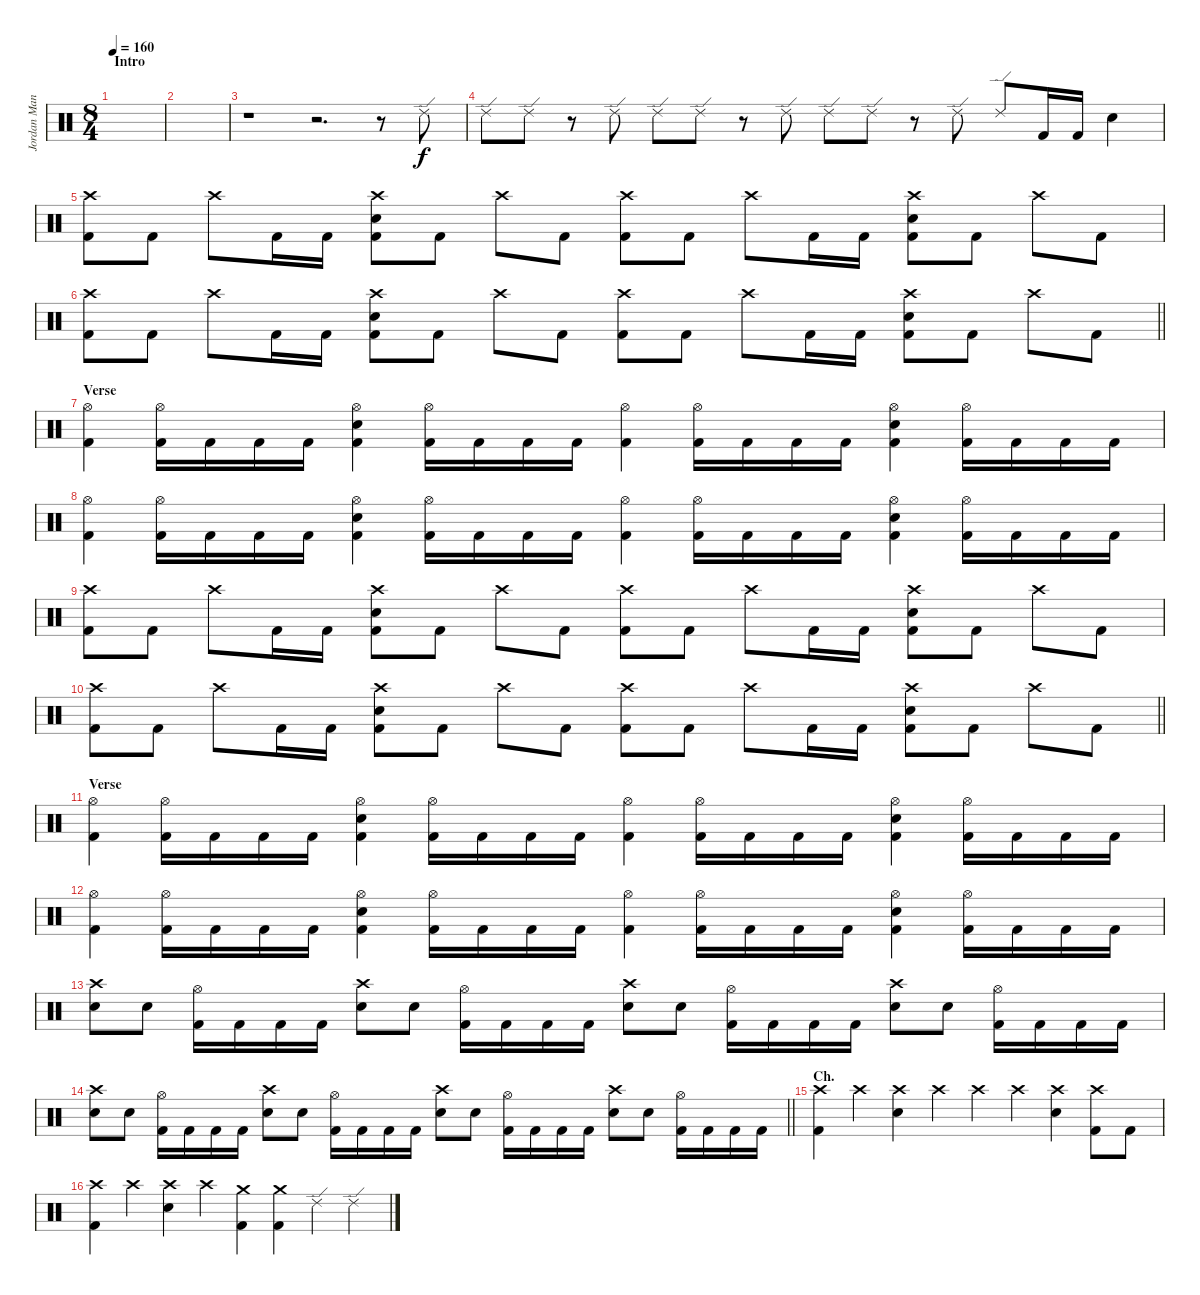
\track ("Jordan Mancino" "Jordan Man") {instrument percussion}
\staff {score}
\articulation defaults
\ts (8 4)
\section ("" "Intro")
\tempo 160
\clef neutral
\ks c
|
|
r.1 r.2{d} r.8 "Ride (edge) 2".8 |
"Ride (edge) 2".8 "Ride (edge) 2".8 r.8 "Ride (edge) 2".8 "Ride (edge) 2".8 "Ride (edge) 2".8 r.8 "Ride (edge) 2".8 "Ride (edge) 2".8 "Ride (edge) 2".8 r.8 "Ride (edge) 2".8 "Ride (edge) 2".8 "Kick (hit) 2".16 "Kick (hit) 2".16 "Electric Snare (hit)".4 |
("Crash high (hit)" "Kick (hit) 2").8 "Kick (hit) 2".8 "Crash high (hit)".8 "Kick (hit) 2".16 "Kick (hit) 2".16 ("Crash high (hit)" "Electric Snare (hit)" "Kick (hit) 2").8 "Kick (hit) 2".8 "Crash high (hit)".8 "Kick (hit) 2".8 ("Crash high (hit)" "Kick (hit) 2").8 "Kick (hit) 2".8 "Crash high (hit)".8 "Kick (hit) 2".16 "Kick (hit) 2".16 ("Crash high (hit)" "Electric Snare (hit)" "Kick (hit) 2").8 "Kick (hit) 2".8 "Crash high (hit)".8 "Kick (hit) 2".8 |
\barLineRight lightlight
("Crash high (hit)" "Kick (hit) 2").8 "Kick (hit) 2".8 "Crash high (hit)".8 "Kick (hit) 2".16 "Kick (hit) 2".16 ("Crash high (hit)" "Electric Snare (hit)" "Kick (hit) 2").8 "Kick (hit) 2".8 "Crash high (hit)".8 "Kick (hit) 2".8 ("Crash high (hit)" "Kick (hit) 2").8 "Kick (hit) 2".8 "Crash high (hit)".8 "Kick (hit) 2".16 "Kick (hit) 2".16 ("Crash high (hit)" "Electric Snare (hit)" "Kick (hit) 2").8 "Kick (hit) 2".8 "Crash high (hit)".8 "Kick (hit) 2".8 |
\section ("" "Verse")
("Hi-Hat (open)" "Kick (hit) 2").4 ("Hi-Hat (open)" "Kick (hit) 2").16 "Kick (hit) 2".16 "Kick (hit) 2".16 "Kick (hit) 2".16 ("Hi-Hat (open)" "Electric Snare (hit)" "Kick (hit) 2").4 ("Hi-Hat (open)" "Kick (hit) 2").16 "Kick (hit) 2".16 "Kick (hit) 2".16 "Kick (hit) 2".16 ("Hi-Hat (open)" "Kick (hit) 2").4 ("Hi-Hat (open)" "Kick (hit) 2").16 "Kick (hit) 2".16 "Kick (hit) 2".16 "Kick (hit) 2".16 ("Hi-Hat (open)" "Electric Snare (hit)" "Kick (hit) 2").4 ("Hi-Hat (open)" "Kick (hit) 2").16 "Kick (hit) 2".16 "Kick (hit) 2".16 "Kick (hit) 2".16 |
("Hi-Hat (open)" "Kick (hit) 2").4 ("Hi-Hat (open)" "Kick (hit) 2").16 "Kick (hit) 2".16 "Kick (hit) 2".16 "Kick (hit) 2".16 ("Hi-Hat (open)" "Electric Snare (hit)" "Kick (hit) 2").4 ("Hi-Hat (open)" "Kick (hit) 2").16 "Kick (hit) 2".16 "Kick (hit) 2".16 "Kick (hit) 2".16 ("Hi-Hat (open)" "Kick (hit) 2").4 ("Hi-Hat (open)" "Kick (hit) 2").16 "Kick (hit) 2".16 "Kick (hit) 2".16 "Kick (hit) 2".16 ("Hi-Hat (open)" "Electric Snare (hit)" "Kick (hit) 2").4 ("Hi-Hat (open)" "Kick (hit) 2").16 "Kick (hit) 2".16 "Kick (hit) 2".16 "Kick (hit) 2".16 |
("Crash high (hit)" "Kick (hit) 2").8 "Kick (hit) 2".8 "Crash high (hit)".8 "Kick (hit) 2".16 "Kick (hit) 2".16 ("Crash high (hit)" "Electric Snare (hit)" "Kick (hit) 2").8 "Kick (hit) 2".8 "Crash high (hit)".8 "Kick (hit) 2".8 ("Crash high (hit)" "Kick (hit) 2").8 "Kick (hit) 2".8 "Crash high (hit)".8 "Kick (hit) 2".16 "Kick (hit) 2".16 ("Crash high (hit)" "Electric Snare (hit)" "Kick (hit) 2").8 "Kick (hit) 2".8 "Crash high (hit)".8 "Kick (hit) 2".8 |
\barLineRight lightlight
("Crash high (hit)" "Kick (hit) 2").8 "Kick (hit) 2".8 "Crash high (hit)".8 "Kick (hit) 2".16 "Kick (hit) 2".16 ("Crash high (hit)" "Electric Snare (hit)" "Kick (hit) 2").8 "Kick (hit) 2".8 "Crash high (hit)".8 "Kick (hit) 2".8 ("Crash high (hit)" "Kick (hit) 2").8 "Kick (hit) 2".8 "Crash high (hit)".8 "Kick (hit) 2".16 "Kick (hit) 2".16 ("Crash high (hit)" "Electric Snare (hit)" "Kick (hit) 2").8 "Kick (hit) 2".8 "Crash high (hit)".8 "Kick (hit) 2".8 |
\section ("" "Verse")
("Hi-Hat (open)" "Kick (hit) 2").4 ("Hi-Hat (open)" "Kick (hit) 2").16 "Kick (hit) 2".16 "Kick (hit) 2".16 "Kick (hit) 2".16 ("Hi-Hat (open)" "Electric Snare (hit)" "Kick (hit) 2").4 ("Hi-Hat (open)" "Kick (hit) 2").16 "Kick (hit) 2".16 "Kick (hit) 2".16 "Kick (hit) 2".16 ("Hi-Hat (open)" "Kick (hit) 2").4 ("Hi-Hat (open)" "Kick (hit) 2").16 "Kick (hit) 2".16 "Kick (hit) 2".16 "Kick (hit) 2".16 ("Hi-Hat (open)" "Electric Snare (hit)" "Kick (hit) 2").4 ("Hi-Hat (open)" "Kick (hit) 2").16 "Kick (hit) 2".16 "Kick (hit) 2".16 "Kick (hit) 2".16 |
("Hi-Hat (open)" "Kick (hit) 2").4 ("Hi-Hat (open)" "Kick (hit) 2").16 "Kick (hit) 2".16 "Kick (hit) 2".16 "Kick (hit) 2".16 ("Hi-Hat (open)" "Electric Snare (hit)" "Kick (hit) 2").4 ("Hi-Hat (open)" "Kick (hit) 2").16 "Kick (hit) 2".16 "Kick (hit) 2".16 "Kick (hit) 2".16 ("Hi-Hat (open)" "Kick (hit) 2").4 ("Hi-Hat (open)" "Kick (hit) 2").16 "Kick (hit) 2".16 "Kick (hit) 2".16 "Kick (hit) 2".16 ("Hi-Hat (open)" "Electric Snare (hit)" "Kick (hit) 2").4 ("Hi-Hat (open)" "Kick (hit) 2").16 "Kick (hit) 2".16 "Kick (hit) 2".16 "Kick (hit) 2".16 |
("Crash high (hit)" "Electric Snare (hit)").8 "Electric Snare (hit)".8 ("Hi-Hat (open)" "Kick (hit) 2").16 "Kick (hit) 2".16 "Kick (hit) 2".16 "Kick (hit) 2".16 ("Crash high (hit)" "Electric Snare (hit)").8 "Electric Snare (hit)".8 ("Hi-Hat (open)" "Kick (hit) 2").16 "Kick (hit) 2".16 "Kick (hit) 2".16 "Kick (hit) 2".16 ("Crash high (hit)" "Electric Snare (hit)").8 "Electric Snare (hit)".8 ("Hi-Hat (open)" "Kick (hit) 2").16 "Kick (hit) 2".16 "Kick (hit) 2".16 "Kick (hit) 2".16 ("Crash high (hit)" "Electric Snare (hit)").8 "Electric Snare (hit)".8 ("Hi-Hat (open)" "Kick (hit) 2").16 "Kick (hit) 2".16 "Kick (hit) 2".16 "Kick (hit) 2".16 |
\barLineRight lightlight
("Crash high (hit)" "Electric Snare (hit)").8 "Electric Snare (hit)".8 ("Hi-Hat (open)" "Kick (hit) 2").16 "Kick (hit) 2".16 "Kick (hit) 2".16 "Kick (hit) 2".16 ("Crash high (hit)" "Electric Snare (hit)").8 "Electric Snare (hit)".8 ("Hi-Hat (open)" "Kick (hit) 2").16 "Kick (hit) 2".16 "Kick (hit) 2".16 "Kick (hit) 2".16 ("Crash high (hit)" "Electric Snare (hit)").8 "Electric Snare (hit)".8 ("Hi-Hat (open)" "Kick (hit) 2").16 "Kick (hit) 2".16 "Kick (hit) 2".16 "Kick (hit) 2".16 ("Crash high (hit)" "Electric Snare (hit)").8 "Electric Snare (hit)".8 ("Hi-Hat (open)" "Kick (hit) 2").16 "Kick (hit) 2".16 "Kick (hit) 2".16 "Kick (hit) 2".16 |
\section ("" "Ch.")
("Crash high (hit)" "Kick (hit) 2").4 "Crash high (hit)".4 ("Crash high (hit)" "Electric Snare (hit)").4 "Crash high (hit)".4 "Crash high (hit)".4 "Crash high (hit)".4 ("Crash high (hit)" "Electric Snare (hit)").4 ("Crash high (hit)" "Kick (hit) 2").8 "Kick (hit) 2".8 |
("Crash high (hit)" "Kick (hit) 2").4 "Crash high (hit)".4 ("Crash high (hit)" "Electric Snare (hit)").4 "Crash high (hit)".4 ("Crash medium (hit)" "Kick (hit) 2").4 ("Crash medium (hit)" "Kick (hit) 2").4 "Ride (edge) 2".4 "Ride (edge) 2".4
